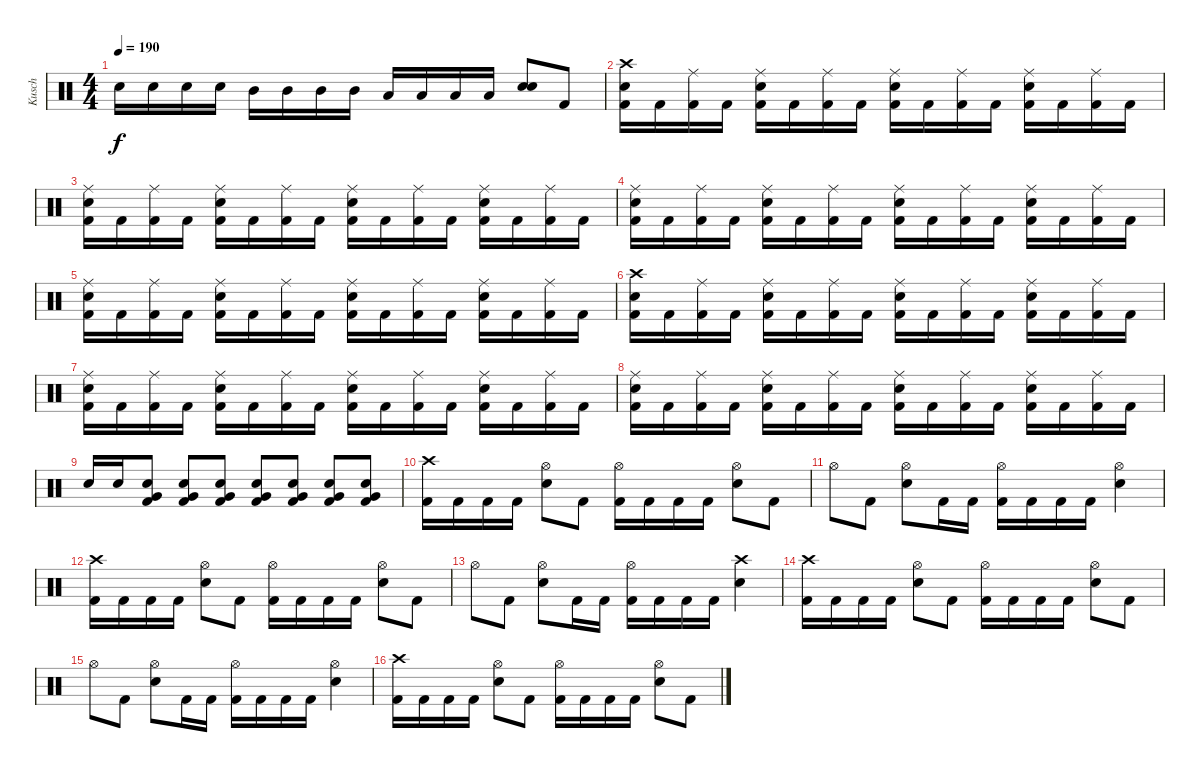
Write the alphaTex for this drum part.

\track ("Kusch" "Kusch") {instrument percussion}
\staff {score}
\articulation defaults
\ts (4 4)
\tempo 190
\clef neutral
\ks c "Electric Snare (hit)".16{dy f} "Electric Snare (hit)".16 "Electric Snare (hit)".16 "Electric Snare (hit)".16 "Mid Tom (hit)".16 "Mid Tom (hit)".16 "Mid Tom (hit)".16 "Mid Tom (hit)".16 "Low Tom (hit)".16 "Low Tom (hit)".16 "Low Tom (hit)".16 "Low Tom (hit)".16
("Electric Snare (hit)" "Electric Snare (hit)").8{bd 240} "Kick (hit) 2".8 |
("Crash high (hit)" "Electric Snare (hit)" "Kick (hit) 2").16 "Kick (hit) 2".16 ("Ride (middle)" "Kick (hit) 2").16 "Kick (hit) 2".16 ("Ride (middle)" "Electric Snare (hit)" "Kick (hit) 2").16 "Kick (hit) 2".16 ("Ride (middle)" "Kick (hit) 2").16 "Kick (hit) 2".16 ("Ride (middle)" "Electric Snare (hit)" "Kick (hit) 2").16 "Kick (hit) 2".16 ("Ride (middle)" "Kick (hit) 2").16 "Kick (hit) 2".16 ("Ride (middle)" "Electric Snare (hit)" "Kick (hit) 2").16 "Kick (hit) 2".16 ("Ride (middle)" "Kick (hit) 2").16 "Kick (hit) 2".16 |
("Ride (middle)" "Electric Snare (hit)" "Kick (hit) 2").16 "Kick (hit) 2".16 ("Ride (middle)" "Kick (hit) 2").16 "Kick (hit) 2".16 ("Ride (middle)" "Electric Snare (hit)" "Kick (hit) 2").16 "Kick (hit) 2".16 ("Ride (middle)" "Kick (hit) 2").16 "Kick (hit) 2".16 ("Ride (middle)" "Electric Snare (hit)" "Kick (hit) 2").16 "Kick (hit) 2".16 ("Ride (middle)" "Kick (hit) 2").16 "Kick (hit) 2".16 ("Ride (middle)" "Electric Snare (hit)" "Kick (hit) 2").16 "Kick (hit) 2".16 ("Ride (middle)" "Kick (hit) 2").16 "Kick (hit) 2".16 |
("Ride (middle)" "Electric Snare (hit)" "Kick (hit) 2").16 "Kick (hit) 2".16 ("Ride (middle)" "Kick (hit) 2").16 "Kick (hit) 2".16 ("Ride (middle)" "Electric Snare (hit)" "Kick (hit) 2").16 "Kick (hit) 2".16 ("Ride (middle)" "Kick (hit) 2").16 "Kick (hit) 2".16 ("Ride (middle)" "Electric Snare (hit)" "Kick (hit) 2").16 "Kick (hit) 2".16 ("Ride (middle)" "Kick (hit) 2").16 "Kick (hit) 2".16 ("Ride (middle)" "Electric Snare (hit)" "Kick (hit) 2").16 "Kick (hit) 2".16 ("Ride (middle)" "Kick (hit) 2").16 "Kick (hit) 2".16 |
("Ride (middle)" "Electric Snare (hit)" "Kick (hit) 2").16 "Kick (hit) 2".16 ("Ride (middle)" "Kick (hit) 2").16 "Kick (hit) 2".16 ("Ride (middle)" "Electric Snare (hit)" "Kick (hit) 2").16 "Kick (hit) 2".16 ("Ride (middle)" "Kick (hit) 2").16 "Kick (hit) 2".16 ("Ride (middle)" "Electric Snare (hit)" "Kick (hit) 2").16 "Kick (hit) 2".16 ("Ride (middle)" "Kick (hit) 2").16 "Kick (hit) 2".16 ("Ride (middle)" "Electric Snare (hit)" "Kick (hit) 2").16 "Kick (hit) 2".16 ("Ride (middle)" "Kick (hit) 2").16 "Kick (hit) 2".16 |
("Crash high (hit)" "Electric Snare (hit)" "Kick (hit) 2").16 "Kick (hit) 2".16 ("Ride (middle)" "Kick (hit) 2").16 "Kick (hit) 2".16 ("Ride (middle)" "Electric Snare (hit)" "Kick (hit) 2").16 "Kick (hit) 2".16 ("Ride (middle)" "Kick (hit) 2").16 "Kick (hit) 2".16 ("Ride (middle)" "Electric Snare (hit)" "Kick (hit) 2").16 "Kick (hit) 2".16 ("Ride (middle)" "Kick (hit) 2").16 "Kick (hit) 2".16 ("Ride (middle)" "Electric Snare (hit)" "Kick (hit) 2").16 "Kick (hit) 2".16 ("Ride (middle)" "Kick (hit) 2").16 "Kick (hit) 2".16 |
("Ride (middle)" "Electric Snare (hit)" "Kick (hit) 2").16 "Kick (hit) 2".16 ("Ride (middle)" "Kick (hit) 2").16 "Kick (hit) 2".16 ("Ride (middle)" "Electric Snare (hit)" "Kick (hit) 2").16 "Kick (hit) 2".16 ("Ride (middle)" "Kick (hit) 2").16 "Kick (hit) 2".16 ("Ride (middle)" "Electric Snare (hit)" "Kick (hit) 2").16 "Kick (hit) 2".16 ("Ride (middle)" "Kick (hit) 2").16 "Kick (hit) 2".16 ("Ride (middle)" "Electric Snare (hit)" "Kick (hit) 2").16 "Kick (hit) 2".16 ("Ride (middle)" "Kick (hit) 2").16 "Kick (hit) 2".16 |
("Ride (middle)" "Electric Snare (hit)" "Kick (hit) 2").16 "Kick (hit) 2".16 ("Ride (middle)" "Kick (hit) 2").16 "Kick (hit) 2".16 ("Ride (middle)" "Electric Snare (hit)" "Kick (hit) 2").16 "Kick (hit) 2".16 ("Ride (middle)" "Kick (hit) 2").16 "Kick (hit) 2".16 ("Ride (middle)" "Electric Snare (hit)" "Kick (hit) 2").16 "Kick (hit) 2".16 ("Ride (middle)" "Kick (hit) 2").16 "Kick (hit) 2".16 ("Ride (middle)" "Electric Snare (hit)" "Kick (hit) 2").16 "Kick (hit) 2".16 ("Ride (middle)" "Kick (hit) 2").16 "Kick (hit) 2".16 |
"Electric Snare (hit)".16 "Electric Snare (hit)".16 ("Electric Snare (hit)" "Very Low Tom (hit)" "Kick (hit) 2").8 ("Electric Snare (hit)" "Very Low Tom (hit)" "Kick (hit) 2").8 ("Electric Snare (hit)" "Very Low Tom (hit)" "Kick (hit) 2").8 ("Electric Snare (hit)" "Very Low Tom (hit)" "Kick (hit) 2").8 ("Electric Snare (hit)" "Very Low Tom (hit)" "Kick (hit) 2").8 ("Electric Snare (hit)" "Very Low Tom (hit)" "Kick (hit) 2").8 ("Electric Snare (hit)" "Very Low Tom (hit)" "Kick (hit) 2").8 |
("Crash high (hit)" "Kick (hit) 2").16 "Kick (hit) 2".16 "Kick (hit) 2".16 "Kick (hit) 2".16 ("Hi-Hat (open)" "Electric Snare (hit)").8 "Kick (hit) 2".8 ("Hi-Hat (open)" "Kick (hit) 2").16 "Kick (hit) 2".16 "Kick (hit) 2".16 "Kick (hit) 2".16 ("Hi-Hat (open)" "Electric Snare (hit)").8 "Kick (hit) 2".8 |
"Hi-Hat (open)".8 "Kick (hit) 2".8 ("Hi-Hat (open)" "Electric Snare (hit)").8 "Kick (hit) 2".16 "Kick (hit) 2".16 ("Hi-Hat (open)" "Kick (hit) 2").16 "Kick (hit) 2".16 "Kick (hit) 2".16 "Kick (hit) 2".16 ("Hi-Hat (open)" "Electric Snare (hit)").4 |
("Crash high (hit)" "Kick (hit) 2").16 "Kick (hit) 2".16 "Kick (hit) 2".16 "Kick (hit) 2".16 ("Hi-Hat (open)" "Electric Snare (hit)").8 "Kick (hit) 2".8 ("Hi-Hat (open)" "Kick (hit) 2").16 "Kick (hit) 2".16 "Kick (hit) 2".16 "Kick (hit) 2".16 ("Hi-Hat (open)" "Electric Snare (hit)").8 "Kick (hit) 2".8 |
"Hi-Hat (open)".8 "Kick (hit) 2".8 ("Hi-Hat (open)" "Electric Snare (hit)").8 "Kick (hit) 2".16 "Kick (hit) 2".16 ("Hi-Hat (open)" "Kick (hit) 2").16 "Kick (hit) 2".16 "Kick (hit) 2".16 "Kick (hit) 2".16 ("Crash high (hit)" "Electric Snare (hit)").4 |
("Crash high (hit)" "Kick (hit) 2").16 "Kick (hit) 2".16 "Kick (hit) 2".16 "Kick (hit) 2".16 ("Hi-Hat (open)" "Electric Snare (hit)").8 "Kick (hit) 2".8 ("Hi-Hat (open)" "Kick (hit) 2").16 "Kick (hit) 2".16 "Kick (hit) 2".16 "Kick (hit) 2".16 ("Hi-Hat (open)" "Electric Snare (hit)").8 "Kick (hit) 2".8 |
"Hi-Hat (open)".8 "Kick (hit) 2".8 ("Hi-Hat (open)" "Electric Snare (hit)").8 "Kick (hit) 2".16 "Kick (hit) 2".16 ("Hi-Hat (open)" "Kick (hit) 2").16 "Kick (hit) 2".16 "Kick (hit) 2".16 "Kick (hit) 2".16 ("Hi-Hat (open)" "Electric Snare (hit)").4 |
("Crash high (hit)" "Kick (hit) 2").16 "Kick (hit) 2".16 "Kick (hit) 2".16 "Kick (hit) 2".16 ("Hi-Hat (open)" "Electric Snare (hit)").8 "Kick (hit) 2".8 ("Hi-Hat (open)" "Kick (hit) 2").16 "Kick (hit) 2".16 "Kick (hit) 2".16 "Kick (hit) 2".16 ("Hi-Hat (open)" "Electric Snare (hit)").8 "Kick (hit) 2".8
